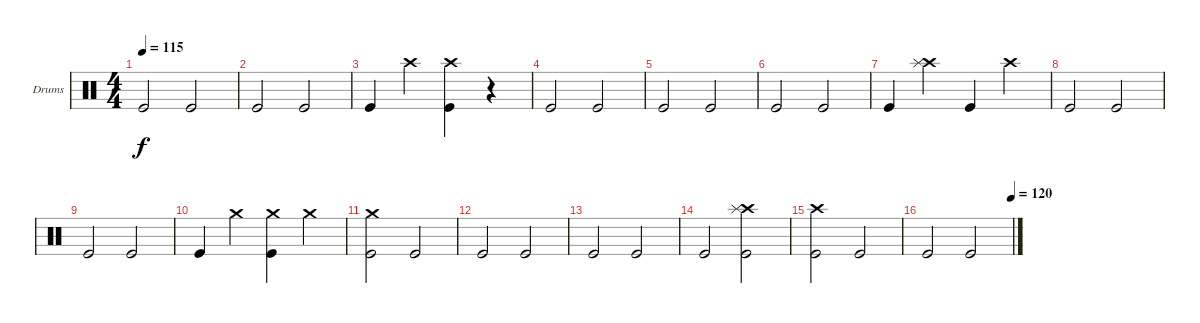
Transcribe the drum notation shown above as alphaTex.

\bracketExtendMode groupsimilarinstruments
\firstSystemTrackNameOrientation horizontal
\otherSystemsTrackNameOrientation horizontal
\track ("Drumkit" "Drums") {instrument percussion}
\staff {score}
\articulation defaults
\ts (4 4)
\tempo 115
\clef neutral
\ks c "Kick (hit)".2{dy f} "Kick (hit)".2
|
"Kick (hit)".2 "Kick (hit)".2 |
"Kick (hit)".4 "Crash high (hit)".4 ("Kick (hit)" "Crash high (hit)").4 r.4 |
"Kick (hit)".2 "Kick (hit)".2 |
"Kick (hit)".2 "Kick (hit)".2 |
"Kick (hit)".2 "Kick (hit)".2 |
"Kick (hit)".4 ("Crash high (hit)" "Splash (hit)").4 "Kick (hit)".4 "Crash high (hit)".4 |
"Kick (hit)".2 "Kick (hit)".2 |
"Kick (hit)".2 "Kick (hit)".2 |
"Kick (hit)".4 "Crash medium (hit)".4 ("Kick (hit)" "Crash medium (hit)").4 "Crash medium (hit)".4 |
("Kick (hit)" "Crash medium (hit)").2 "Kick (hit)".2 |
"Kick (hit)".2 "Kick (hit)".2 |
"Kick (hit)".2 "Kick (hit)".2 |
"Kick (hit)".2 ("Kick (hit)" "Crash high (hit)" "Splash (hit)").2 |
("Kick (hit)" "Crash high (hit)").2 "Kick (hit)".2 |
\tempo (120 0.99375)
"Kick (hit)".2 "Kick (hit)".2
